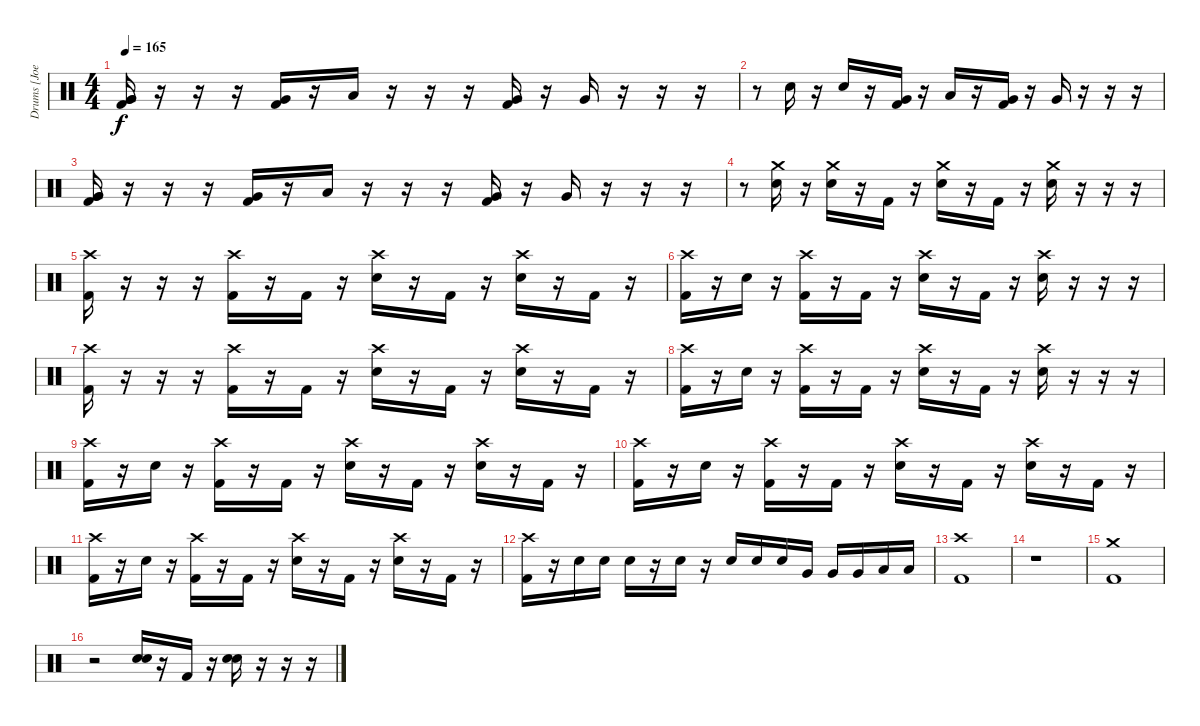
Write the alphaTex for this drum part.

\track ("Drums [Joel Paolucci]" "Drums [Joe") {instrument percussion}
\staff {score}
\articulation defaults
\ts (4 4)
\tempo 165
\clef neutral
\ks c
("Very Low Tom (hit)" "Very Low Tom (hit)" "Kick (hit) 2").16{dy f} r.16 r.16 r.16 ("Very Low Tom (hit)" "Kick (hit) 2").16 r.16 "Low Tom (hit)".16 r.16 r.16 r.16 ("Very Low Tom (hit)" "Kick (hit) 2").16 r.16 "Very Low Tom (hit)".16 r.16 r.16 r.16 |
r.8 "Electric Snare (hit)".16 r.16 "Electric Snare (hit)".16 r.16 ("Very Low Tom (hit)" "Kick (hit) 2").16 r.16 "Low Tom (hit)".16 r.16 ("Very Low Tom (hit)" "Kick (hit) 2").16 r.16 "Very Low Tom (hit)".16 r.16 r.16 r.16 |
("Very Low Tom (hit)" "Very Low Tom (hit)" "Kick (hit) 2").16 r.16 r.16 r.16 ("Very Low Tom (hit)" "Kick (hit) 2").16 r.16 "Low Tom (hit)".16 r.16 r.16 r.16 ("Very Low Tom (hit)" "Kick (hit) 2").16 r.16 "Very Low Tom (hit)".16 r.16 r.16 r.16 |
r.8 ("Crash medium (hit)" "Electric Snare (hit)").16 r.16 ("Crash medium (hit)" "Electric Snare (hit)").16 r.16 "Kick (hit) 2".16 r.16 ("Crash medium (hit)" "Electric Snare (hit)").16 r.16 "Kick (hit) 2".16 r.16 ("Crash medium (hit)" "Electric Snare (hit)").16 r.16 r.16 r.16 |
("Crash high (hit)" "Kick (hit) 2").16 r.16 r.16 r.16 ("Crash high (hit)" "Kick (hit) 2").16 r.16 "Kick (hit) 2".16 r.16 ("Crash high (hit)" "Electric Snare (hit)").16 r.16 "Kick (hit) 2".16 r.16 ("Crash high (hit)" "Electric Snare (hit)").16 r.16 "Kick (hit) 2".16 r.16 |
("Crash high (hit)" "Kick (hit) 2").16 r.16 "Electric Snare (hit)".16 r.16 ("Crash high (hit)" "Kick (hit) 2").16 r.16 "Kick (hit) 2".16 r.16 ("Crash high (hit)" "Electric Snare (hit)").16 r.16 "Kick (hit) 2".16 r.16 ("Crash high (hit)" "Electric Snare (hit)").16 r.16 r.16 r.16 |
("Crash high (hit)" "Kick (hit) 2").16 r.16 r.16 r.16 ("Crash high (hit)" "Kick (hit) 2").16 r.16 "Kick (hit) 2".16 r.16 ("Crash high (hit)" "Electric Snare (hit)").16 r.16 "Kick (hit) 2".16 r.16 ("Crash high (hit)" "Electric Snare (hit)").16 r.16 "Kick (hit) 2".16 r.16 |
("Crash high (hit)" "Kick (hit) 2").16 r.16 "Electric Snare (hit)".16 r.16 ("Crash high (hit)" "Kick (hit) 2").16 r.16 "Kick (hit) 2".16 r.16 ("Crash high (hit)" "Electric Snare (hit)").16 r.16 "Kick (hit) 2".16 r.16 ("Crash high (hit)" "Electric Snare (hit)").16 r.16 r.16 r.16 |
("Crash high (hit)" "Kick (hit) 2").16 r.16 "Electric Snare (hit)".16 r.16 ("Crash high (hit)" "Kick (hit) 2").16 r.16 "Kick (hit) 2".16 r.16 ("Crash high (hit)" "Electric Snare (hit)").16 r.16 "Kick (hit) 2".16 r.16 ("Crash high (hit)" "Electric Snare (hit)").16 r.16 "Kick (hit) 2".16 r.16 |
("Crash high (hit)" "Kick (hit) 2").16 r.16 "Electric Snare (hit)".16 r.16 ("Crash high (hit)" "Kick (hit) 2").16 r.16 "Kick (hit) 2".16 r.16 ("Crash high (hit)" "Electric Snare (hit)").16 r.16 "Kick (hit) 2".16 r.16 ("Crash high (hit)" "Electric Snare (hit)").16 r.16 "Kick (hit) 2".16 r.16 |
("Crash high (hit)" "Kick (hit) 2").16 r.16 "Electric Snare (hit)".16 r.16 ("Crash high (hit)" "Kick (hit) 2").16 r.16 "Kick (hit) 2".16 r.16 ("Crash high (hit)" "Electric Snare (hit)").16 r.16 "Kick (hit) 2".16 r.16 ("Crash high (hit)" "Electric Snare (hit)").16 r.16 "Kick (hit) 2".16 r.16 |
("Crash high (hit)" "Kick (hit) 2").16 r.16 "Electric Snare (hit)".16 "Electric Snare (hit)".16 "Electric Snare (hit)".16 r.16 "Electric Snare (hit)".16 r.16 "Electric Snare (hit)".16 "Electric Snare (hit)".16 "Electric Snare (hit)".16 "Very Low Tom (hit)".16 "Very Low Tom (hit)".16 "Very Low Tom (hit)".16 "Low Floor Tom (hit)".16 "Low Floor Tom (hit)".16 |
("Crash high (hit)" "Kick (hit) 2").1 |
r.1 |
("Crash medium (hit)" "Kick (hit) 2").1 |
r.2 ("Electric Snare (hit)" "Electric Snare (hit)").16 r.16 "Kick (hit) 2".16 r.16 ("Electric Snare (hit)" "Electric Snare (hit)").16 r.16 r.16 r.16
